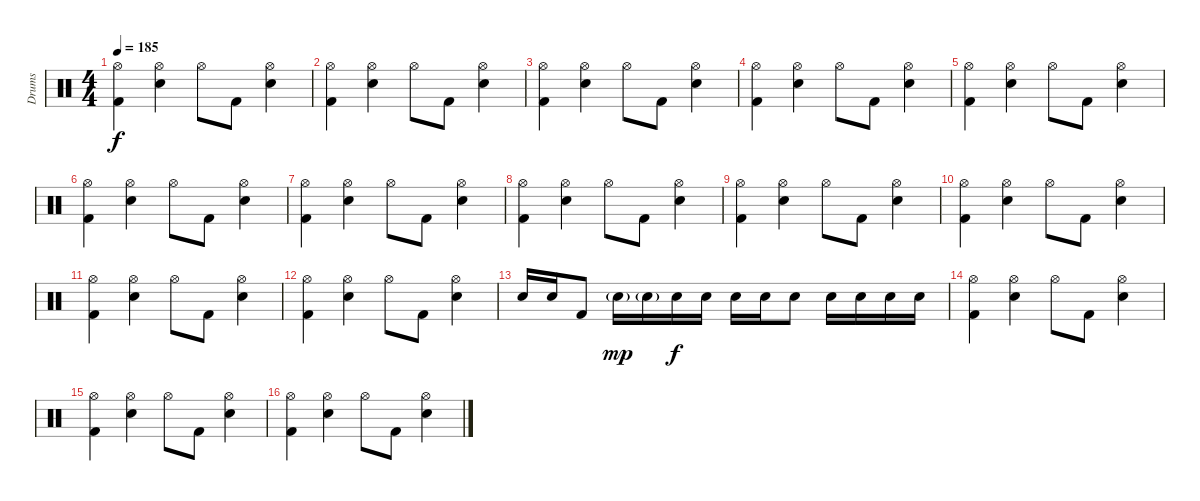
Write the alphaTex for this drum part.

\track ("Drums" "Drums") {instrument percussion}
\staff {score}
\articulation defaults
\ts (4 4)
\tempo 185
\clef neutral
\ks c
("Hi-Hat (open)" "Kick (hit) 2").4{dy f} ("Hi-Hat (open)" "Electric Snare (hit)").4 "Hi-Hat (open)".8 "Kick (hit) 2".8 ("Hi-Hat (open)" "Electric Snare (hit)").4 |
("Hi-Hat (open)" "Kick (hit) 2").4 ("Hi-Hat (open)" "Electric Snare (hit)").4 "Hi-Hat (open)".8 "Kick (hit) 2".8 ("Hi-Hat (open)" "Electric Snare (hit)").4 |
("Hi-Hat (open)" "Kick (hit) 2").4 ("Hi-Hat (open)" "Electric Snare (hit)").4 "Hi-Hat (open)".8 "Kick (hit) 2".8 ("Hi-Hat (open)" "Electric Snare (hit)").4 |
("Hi-Hat (open)" "Kick (hit) 2").4 ("Hi-Hat (open)" "Electric Snare (hit)").4 "Hi-Hat (open)".8 "Kick (hit) 2".8 ("Hi-Hat (open)" "Electric Snare (hit)").4 |
("Hi-Hat (open)" "Kick (hit) 2").4 ("Hi-Hat (open)" "Electric Snare (hit)").4 "Hi-Hat (open)".8 "Kick (hit) 2".8 ("Hi-Hat (open)" "Electric Snare (hit)").4 |
("Hi-Hat (open)" "Kick (hit) 2").4 ("Hi-Hat (open)" "Electric Snare (hit)").4 "Hi-Hat (open)".8 "Kick (hit) 2".8 ("Hi-Hat (open)" "Electric Snare (hit)").4 |
("Hi-Hat (open)" "Kick (hit) 2").4 ("Hi-Hat (open)" "Electric Snare (hit)").4 "Hi-Hat (open)".8 "Kick (hit) 2".8 ("Hi-Hat (open)" "Electric Snare (hit)").4 |
("Hi-Hat (open)" "Kick (hit) 2").4 ("Hi-Hat (open)" "Electric Snare (hit)").4 "Hi-Hat (open)".8 "Kick (hit) 2".8 ("Hi-Hat (open)" "Electric Snare (hit)").4 |
("Hi-Hat (open)" "Kick (hit) 2").4 ("Hi-Hat (open)" "Electric Snare (hit)").4 "Hi-Hat (open)".8 "Kick (hit) 2".8 ("Hi-Hat (open)" "Electric Snare (hit)").4 |
("Hi-Hat (open)" "Kick (hit) 2").4 ("Hi-Hat (open)" "Electric Snare (hit)").4 "Hi-Hat (open)".8 "Kick (hit) 2".8 ("Hi-Hat (open)" "Electric Snare (hit)").4 |
("Hi-Hat (open)" "Kick (hit) 2").4 ("Hi-Hat (open)" "Electric Snare (hit)").4 "Hi-Hat (open)".8 "Kick (hit) 2".8 ("Hi-Hat (open)" "Electric Snare (hit)").4 |
("Hi-Hat (open)" "Kick (hit) 2").4 ("Hi-Hat (open)" "Electric Snare (hit)").4 "Hi-Hat (open)".8 "Kick (hit) 2".8 ("Hi-Hat (open)" "Electric Snare (hit)").4 |
"Electric Snare (hit)".16 "Electric Snare (hit)".16 "Kick (hit) 2".8 "Electric Snare (hit)"{g}.16{dy mp} "Electric Snare (hit)"{g}.16 "Electric Snare (hit)".16{dy f} "Electric Snare (hit)".16 "Electric Snare (hit)".16 "Electric Snare (hit)".16 "Electric Snare (hit)".8 "Electric Snare (hit)".16 "Electric Snare (hit)".16 "Electric Snare (hit)".16 "Electric Snare (hit)".16 |
("Hi-Hat (open)" "Kick (hit) 2").4 ("Hi-Hat (open)" "Electric Snare (hit)").4 "Hi-Hat (open)".8 "Kick (hit) 2".8 ("Hi-Hat (open)" "Electric Snare (hit)").4 |
("Hi-Hat (open)" "Kick (hit) 2").4 ("Hi-Hat (open)" "Electric Snare (hit)").4 "Hi-Hat (open)".8 "Kick (hit) 2".8 ("Hi-Hat (open)" "Electric Snare (hit)").4 |
("Hi-Hat (open)" "Kick (hit) 2").4 ("Hi-Hat (open)" "Electric Snare (hit)").4 "Hi-Hat (open)".8 "Kick (hit) 2".8 ("Hi-Hat (open)" "Electric Snare (hit)").4
